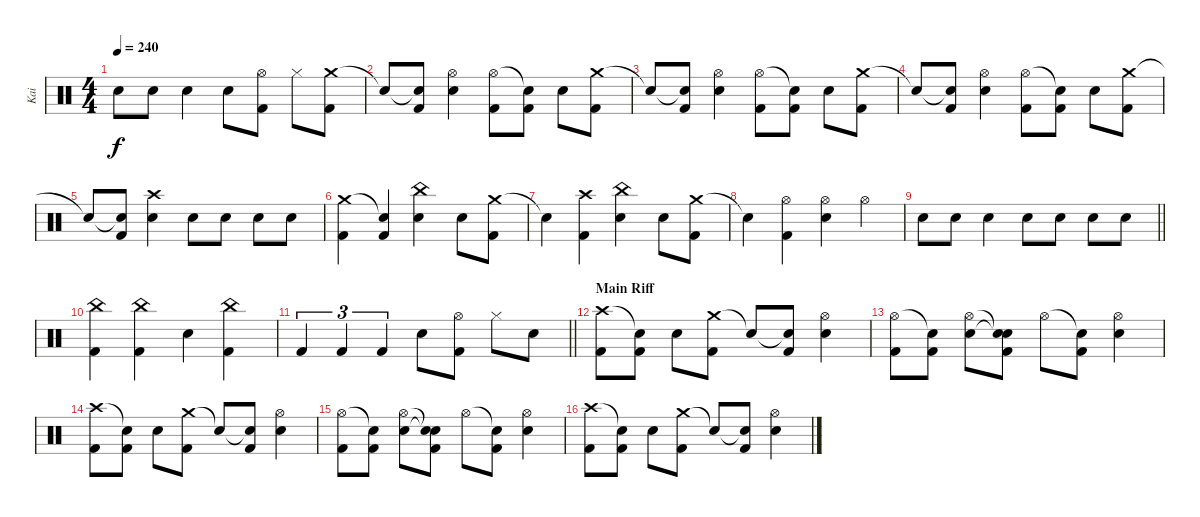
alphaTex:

\track ("Kai" "Kai") {instrument percussion}
\staff {score}
\articulation defaults
\ts (4 4)
\tempo 240
\clef neutral
\ks c "Snare (hit) 2".8{dy f} "Snare (hit) 2".8 "Snare (hit) 2".4 "Snare (hit) 2".8
("Hi-Hat (open)" "Kick (hit) 2").8 "Hi-Hat (closed)".8 ("Crash medium (hit)" "Kick (hit) 2").8 |
"Snare (hit)"{t}.8 ("Snare (hit)"{t} "Kick (hit) 2").8 ("Hi-Hat (open)" "Snare (hit) 2").4 ("Hi-Hat (open)" "Kick (hit) 2").8 ("Snare (hit)"{t} "Kick (hit) 2").8 "Snare (hit) 2".8 ("Crash medium (hit)" "Kick (hit) 2").8 |
"Snare (hit)"{t}.8 ("Snare (hit)"{t} "Kick (hit) 2").8 ("Hi-Hat (open)" "Snare (hit) 2").4 ("Hi-Hat (open)" "Kick (hit) 2").8 ("Snare (hit)"{t} "Kick (hit) 2").8 "Snare (hit) 2".8 ("Crash medium (hit)" "Kick (hit) 2").8 |
"Snare (hit)"{t}.8 ("Snare (hit)"{t} "Kick (hit) 2").8 ("Hi-Hat (open)" "Snare (hit) 2").4 ("Hi-Hat (open)" "Kick (hit) 2").8 ("Snare (hit)"{t} "Kick (hit) 2").8 "Snare (hit) 2".8 ("Crash medium (hit)" "Kick (hit) 2").8 |
"Snare (hit)"{t}.8 ("Snare (hit)"{t} "Kick (hit) 2").8 ("Crash high (hit)" "Snare (hit) 2").4 "Snare (hit) 2".8 "Snare (hit) 2".8 "Snare (hit) 2".8 "Snare (hit) 2".8 |
("Crash medium (hit)" "Kick (hit) 2").4 ("Snare (hit)"{t} "Kick (hit) 2").4 ("China (hit)" "Snare (hit) 2").4 "Snare (hit) 2".8 ("Crash medium (hit)" "Kick (hit) 2").8 |
"Snare (hit)"{t}.4 ("Crash high (hit)" "Kick (hit) 2").4 ("China (hit)" "Snare (hit) 2").4 "Snare (hit) 2".8 ("Crash medium (hit)" "Kick (hit) 2").8 |
"Snare (hit)"{t}.4 ("Hi-Hat (open)" "Kick (hit) 2").4 ("Hi-Hat (open)" "Snare (hit) 2").4 "Hi-Hat (open)".4 |
\barLineRight lightlight "Snare (hit) 2".8 "Snare (hit) 2".8 "Snare (hit) 2".4 "Snare (hit) 2".8 "Snare (hit) 2".8 "Snare (hit) 2".8 "Snare (hit) 2".8
|
("China (hit)" "Kick (hit) 2").4 ("China (hit)" "Kick (hit) 2").4 "Snare (hit) 2".4 ("China (hit)" "Kick (hit) 2").4 |
\barLineRight lightlight "Kick (hit) 2".4{tu (3 2)} "Kick (hit) 2".4{tu (3 2)} "Kick (hit) 2".4{tu (3 2)} "Snare (hit) 2".8
("Hi-Hat (open)" "Kick (hit) 2").8 "Hi-Hat (closed)".8 "Snare (hit) 2".8 |
\section ("" "Main Riff")
("Crash high (hit)" "Kick (hit) 2").8 ("Snare (hit)"{t} "Kick (hit) 2").8 "Snare (hit) 2".8 ("Crash medium (hit)" "Kick (hit) 2").8 "Snare (hit)"{t}.8 ("Snare (hit)"{t} "Kick (hit) 2").8 ("Hi-Hat (open)" "Snare (hit) 2").4 |
("Hi-Hat (open)" "Kick (hit) 2").8 ("Snare (hit)"{t} "Kick (hit) 2").8 ("Hi-Hat (open)" "Snare (hit) 2").8 ("Snare (hit)"{t} "Snare (hit)"{t} "Kick (hit) 2").8 "Hi-Hat (open)".8 ("Snare (hit)"{t} "Kick (hit) 2").8 ("Hi-Hat (open)" "Snare (hit) 2").4 |
("Crash high (hit)" "Kick (hit) 2").8 ("Snare (hit)"{t} "Kick (hit) 2").8 "Snare (hit) 2".8 ("Crash medium (hit)" "Kick (hit) 2").8 "Snare (hit)"{t}.8 ("Snare (hit)"{t} "Kick (hit) 2").8 ("Hi-Hat (open)" "Snare (hit) 2").4 |
("Hi-Hat (open)" "Kick (hit) 2").8 ("Snare (hit)"{t} "Kick (hit) 2").8 ("Hi-Hat (open)" "Snare (hit) 2").8 ("Snare (hit)"{t} "Snare (hit)"{t} "Kick (hit) 2").8 "Hi-Hat (open)".8 ("Snare (hit)"{t} "Kick (hit) 2").8 ("Hi-Hat (open)" "Snare (hit) 2").4 |
("Crash high (hit)" "Kick (hit) 2").8 ("Snare (hit)"{t} "Kick (hit) 2").8 "Snare (hit) 2".8 ("Crash medium (hit)" "Kick (hit) 2").8 "Snare (hit)"{t}.8 ("Snare (hit)"{t} "Kick (hit) 2").8 ("Hi-Hat (open)" "Snare (hit) 2").4
